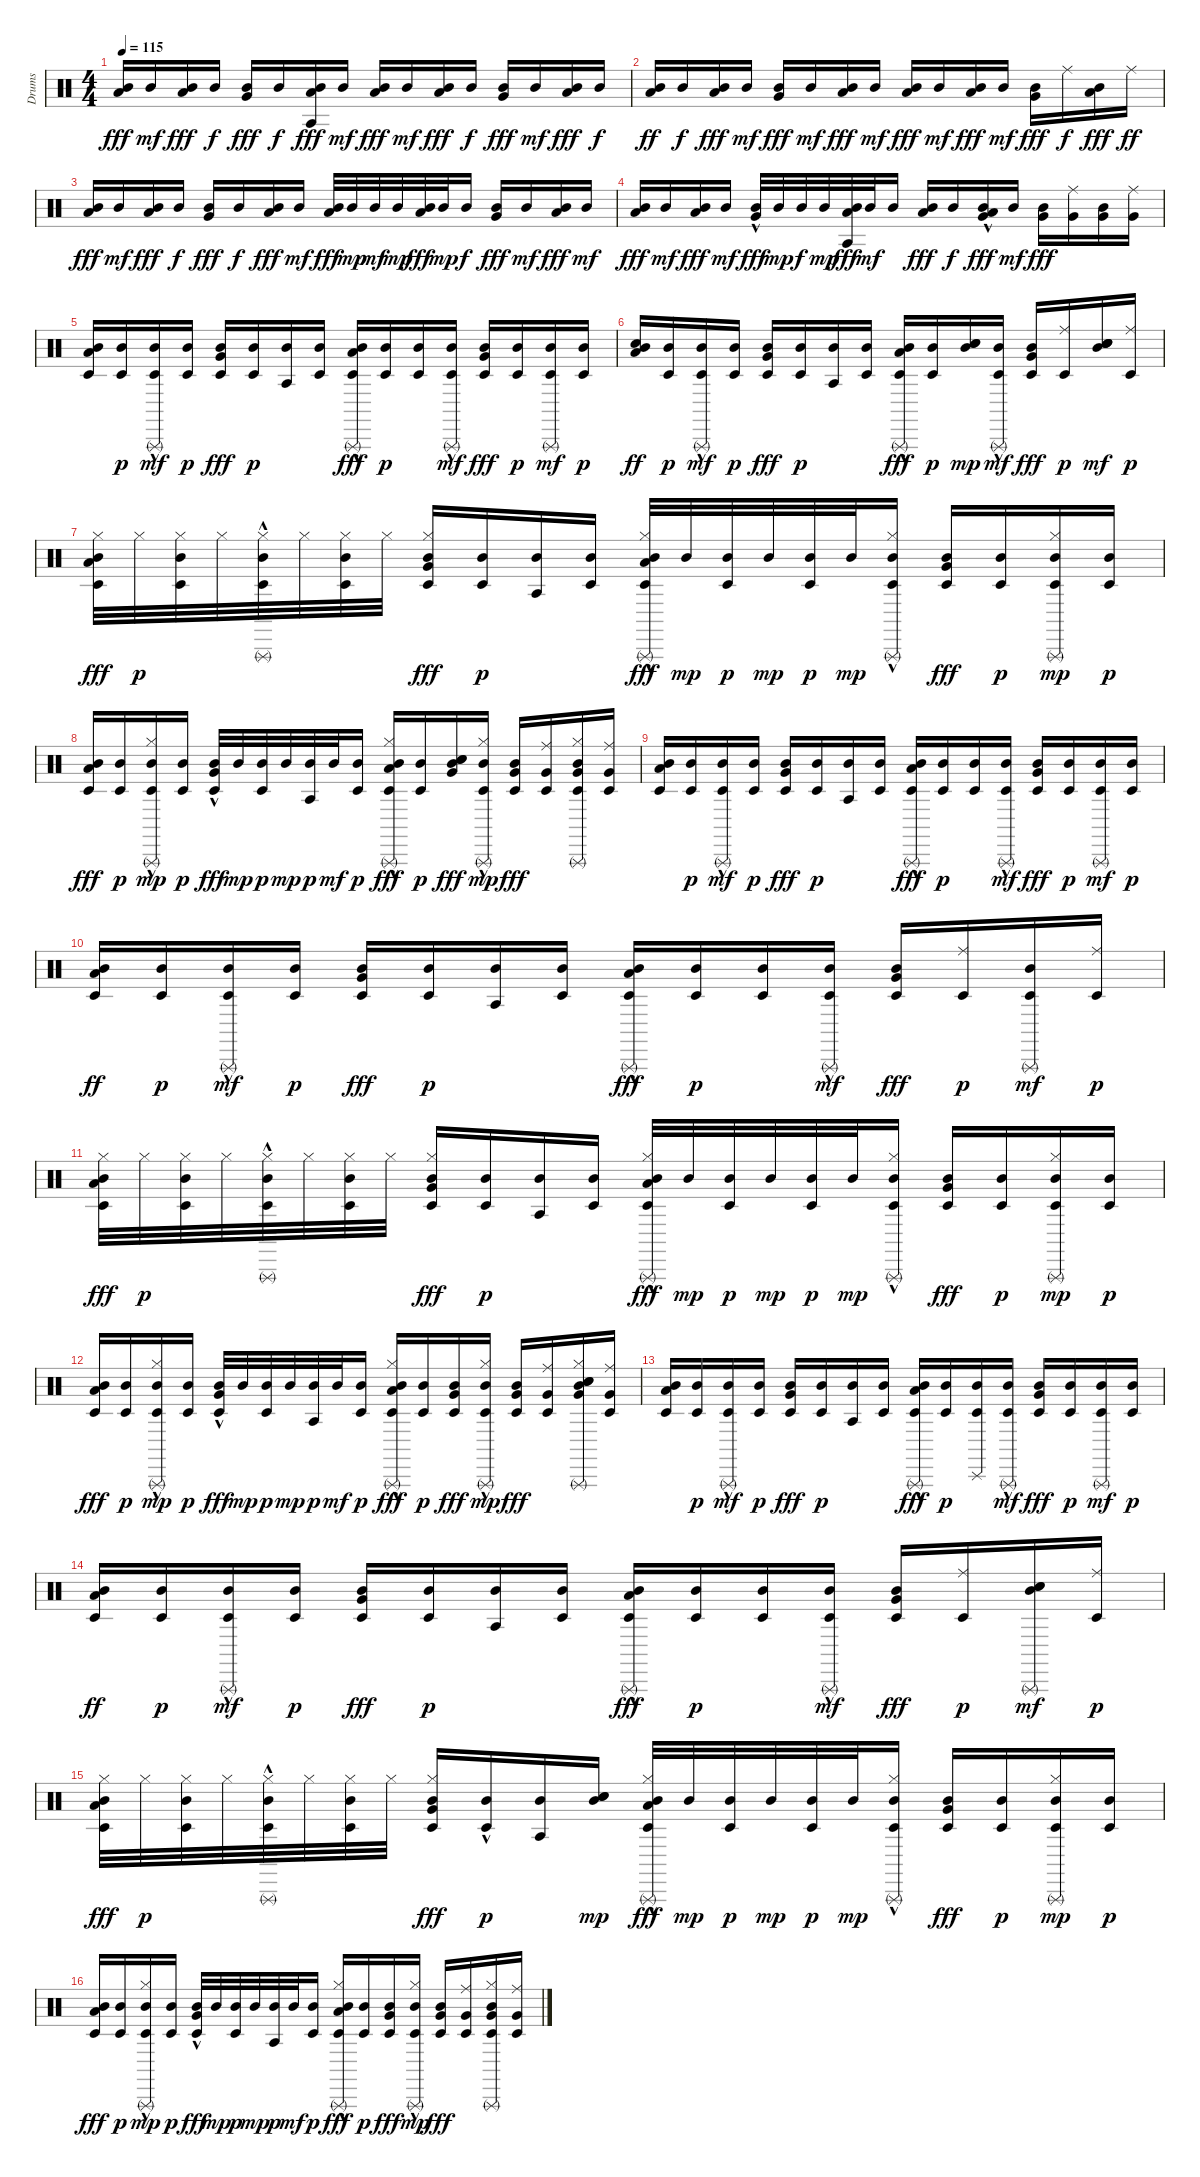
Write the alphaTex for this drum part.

\track ("Drums" "Drums") {instrument percussion}
\staff {score}
\articulation defaults
\ts (4 4)
\tempo 115
\clef neutral
\ks c
("Mid Tom (hit)" "Low Floor Tom (hit)").16{dy fff} "Mid Tom (hit)".16{dy mf} ("Mid Tom (hit)" "Low Floor Tom (hit)").16{dy fff} "Mid Tom (hit)".16{dy f} ("Mid Tom (hit)" "Very Low Tom (hit)").16{dy fff} "Mid Tom (hit)".16{dy f} ("Mid Tom (hit)" "Agogo tow (hit)" "Low Floor Tom (hit)").16{dy fff} "Mid Tom (hit)".16{dy mf} ("Mid Tom (hit)" "Low Floor Tom (hit)").16{dy fff} "Mid Tom (hit)".16{dy mf} ("Mid Tom (hit)" "Low Floor Tom (hit)").16{dy fff} "Mid Tom (hit)".16{dy f} ("Mid Tom (hit)" "Very Low Tom (hit)").16{dy fff} "Mid Tom (hit)".16{dy mf} ("Mid Tom (hit)" "Low Floor Tom (hit)").16{dy fff} "Mid Tom (hit)".16{dy f} |
("Mid Tom (hit)" "Low Floor Tom (hit)").16{dy ff} "Mid Tom (hit)".16{dy f} ("Mid Tom (hit)" "Low Floor Tom (hit)").16{dy fff} "Mid Tom (hit)".16{dy mf} ("Mid Tom (hit)" "Very Low Tom (hit)").16{dy fff} "Mid Tom (hit)".16{dy mf} ("Mid Tom (hit)" "Low Floor Tom (hit)").16{dy fff} "Mid Tom (hit)".16{dy mf} ("Mid Tom (hit)" "Low Floor Tom (hit)").16{dy fff} "Mid Tom (hit)".16{dy mf} ("Mid Tom (hit)" "Low Floor Tom (hit)").16{dy fff} "Mid Tom (hit)".16{dy mf} ("Mid Tom (hit)" "Very Low Tom (hit)").16{dy fff} "Ride (middle)".16{dy f} ("Mid Tom (hit)" "Low Floor Tom (hit)").16{dy fff} "Ride (middle)".16{dy ff} |
("Mid Tom (hit)" "Low Floor Tom (hit)").16{dy fff} "Mid Tom (hit)".16{dy mf} ("Mid Tom (hit)" "Low Floor Tom (hit)").16{dy fff} "Mid Tom (hit)".16{dy f} ("Mid Tom (hit)" "Very Low Tom (hit)").16{dy fff} "Mid Tom (hit)".16{dy f} ("Mid Tom (hit)" "Low Floor Tom (hit)").16{dy fff} "Mid Tom (hit)".16{dy mf} ("Mid Tom (hit)" "Low Floor Tom (hit)").32{dy fff} "Mid Tom (hit)".32{dy mp} "Mid Tom (hit)".32{dy mf} "Mid Tom (hit)".32{dy mp} ("Mid Tom (hit)" "Low Floor Tom (hit)").32{dy fff} "Mid Tom (hit)".32{dy mp} "Mid Tom (hit)".16{dy f} ("Mid Tom (hit)" "Very Low Tom (hit)").16{dy fff} "Mid Tom (hit)".16{dy mf} ("Mid Tom (hit)" "Low Floor Tom (hit)").16{dy fff} "Mid Tom (hit)".16{dy mf} |
("Mid Tom (hit)" "Low Floor Tom (hit)").16{dy fff} "Mid Tom (hit)".16{dy mf} ("Mid Tom (hit)" "Low Floor Tom (hit)").16{dy fff} "Mid Tom (hit)".16{dy mf} ("Mid Tom (hit)" "Very Low Tom (hit)"{hac}).32{dy fff} "Mid Tom (hit)".32{dy mp} "Mid Tom (hit)".32{dy f} "Mid Tom (hit)".32{dy mp} ("Mid Tom (hit)" "Agogo tow (hit)" "Low Floor Tom (hit)").32{dy fff} "Mid Tom (hit)".32{dy mf} "Mid Tom (hit)".16 ("Mid Tom (hit)" "Low Floor Tom (hit)").16{dy fff} "Mid Tom (hit)".16{dy f} ("Mid Tom (hit)" "Very Low Tom (hit)" "Low Floor Tom (hit)"{hac}).16{dy fff} "Mid Tom (hit)".16{dy mf} ("Mid Tom (hit)" "Very Low Tom (hit)").16{dy fff} ("Ride (middle)" "Very Low Tom (hit)").16 ("Mid Tom (hit)" "Very Low Tom (hit)").16 ("Ride (middle)" "Very Low Tom (hit)").16 |
("Mid Tom (hit)" "Timbale low (hit)" "Low Floor Tom (hit)").16 ("Mid Tom (hit)" "Timbale low (hit)").16{dy p} ("Mid Tom (hit)" "Timbale low (hit)" "Triangle (rnute)"{hac}).16{dy mf} ("Mid Tom (hit)" "Timbale low (hit)").16{dy p} ("Mid Tom (hit)" "Timbale low (hit)" "Very Low Tom (hit)").16{dy fff} ("Mid Tom (hit)" "Timbale low (hit)").16{dy p} ("Mid Tom (hit)" "Agogo tow (hit)").16 ("Mid Tom (hit)" "Timbale low (hit)").16 ("Mid Tom (hit)" "Timbale low (hit)" "Triangle (rnute)"{hac} "Low Floor Tom (hit)").16{dy fff} ("Mid Tom (hit)" "Timbale low (hit)").16{dy p} ("Mid Tom (hit)" "Timbale low (hit)").16 ("Mid Tom (hit)" "Timbale low (hit)" "Triangle (rnute)"{hac}).16{dy mf} ("Mid Tom (hit)" "Timbale low (hit)" "Very Low Tom (hit)").16{dy fff} ("Mid Tom (hit)" "Timbale low (hit)").16{dy p} ("Mid Tom (hit)" "Timbale low (hit)" "Triangle (rnute)").16{dy mf} ("Mid Tom (hit)" "Timbale low (hit)").16{dy p} |
("Mid Tom (hit)" "Snare (hit)" "Low Floor Tom (hit)").16{dy ff} ("Mid Tom (hit)" "Timbale low (hit)").16{dy p} ("Mid Tom (hit)" "Timbale low (hit)" "Triangle (rnute)"{hac}).16{dy mf} ("Mid Tom (hit)" "Timbale low (hit)").16{dy p} ("Mid Tom (hit)" "Timbale low (hit)" "Very Low Tom (hit)").16{dy fff} ("Mid Tom (hit)" "Timbale low (hit)").16{dy p} ("Mid Tom (hit)" "Agogo tow (hit)").16 ("Mid Tom (hit)" "Timbale low (hit)").16 ("Mid Tom (hit)" "Timbale low (hit)" "Triangle (rnute)"{hac} "Low Floor Tom (hit)").16{dy fff} ("Mid Tom (hit)" "Timbale low (hit)").16{dy p} ("Mid Tom (hit)" "Snare (hit)" "Snare (hit)").16{dy mp} ("Mid Tom (hit)" "Timbale low (hit)" "Triangle (rnute)"{hac}).16{dy mf} ("Mid Tom (hit)" "Timbale low (hit)" "Very Low Tom (hit)").16{dy fff} ("Ride (middle)" "Timbale low (hit)").16{dy p} ("Mid Tom (hit)" "Snare (hit)" "Snare (hit)" "Snare (hit)").16{dy mf} ("Ride (middle)" "Timbale low (hit)").16{dy p} |
("Mid Tom (hit)" "Timbale low (hit)" "Hi-Hat (closed)" "Low Floor Tom (hit)").32{dy fff} "Hi-Hat (closed)".32{dy p} ("Mid Tom (hit)" "Timbale low (hit)" "Hi-Hat (closed)").32 "Hi-Hat (closed)".32 ("Mid Tom (hit)" "Timbale low (hit)" "Triangle (rnute)"{hac} "Hi-Hat (closed)").32 "Hi-Hat (closed)".32 ("Mid Tom (hit)" "Timbale low (hit)" "Hi-Hat (closed)").32 "Hi-Hat (closed)".32 ("Mid Tom (hit)" "Timbale low (hit)" "Hi-Hat (closed)" "Very Low Tom (hit)").16{dy fff} ("Mid Tom (hit)" "Timbale low (hit)").16{dy p} ("Mid Tom (hit)" "Agogo tow (hit)").16 ("Mid Tom (hit)" "Timbale low (hit)").16 ("Mid Tom (hit)" "Timbale low (hit)" "Triangle (rnute)"{hac} "Hi-Hat (closed)"{hac} "Low Floor Tom (hit)").32{dy fff} "Mid Tom (hit)".32{dy mp} ("Mid Tom (hit)" "Timbale low (hit)").32{dy p} "Mid Tom (hit)".32{dy mp} ("Mid Tom (hit)" "Timbale low (hit)").32{dy p} "Mid Tom (hit)".32{dy mp} ("Mid Tom (hit)" "Timbale low (hit)" "Triangle (rnute)"{hac} "Hi-Hat (closed)"{hac}).16 ("Mid Tom (hit)" "Timbale low (hit)" "Very Low Tom (hit)").16{dy fff} ("Mid Tom (hit)" "Timbale low (hit)").16{dy p} ("Mid Tom (hit)" "Timbale low (hit)" "Triangle (rnute)" "Hi-Hat (closed)").16{dy mp} ("Mid Tom (hit)" "Timbale low (hit)").16{dy p} |
("Mid Tom (hit)" "Timbale low (hit)" "Low Floor Tom (hit)").16{dy fff} ("Mid Tom (hit)" "Timbale low (hit)").16{dy p} ("Mid Tom (hit)" "Timbale low (hit)" "Triangle (rnute)"{hac} "Hi-Hat (closed)"{hac}).16{dy mp} ("Mid Tom (hit)" "Timbale low (hit)").16{dy p} ("Mid Tom (hit)" "Timbale low (hit)" "Very Low Tom (hit)"{hac}).32{dy fff} "Mid Tom (hit)".32{dy mp} ("Mid Tom (hit)" "Timbale low (hit)").32{dy p} "Mid Tom (hit)".32{dy mp} ("Mid Tom (hit)" "Agogo tow (hit)").32{dy p} "Mid Tom (hit)".32{dy mf} ("Mid Tom (hit)" "Timbale low (hit)").16{dy p} ("Mid Tom (hit)" "Timbale low (hit)" "Triangle (rnute)"{hac} "Hi-Hat (closed)"{hac} "Low Floor Tom (hit)").16{dy fff} ("Mid Tom (hit)" "Timbale low (hit)").16{dy p} ("Mid Tom (hit)" "Snare (hit)" "Snare (hit)" "Very Low Tom (hit)").16{dy fff} ("Mid Tom (hit)" "Timbale low (hit)" "Triangle (rnute)"{hac} "Hi-Hat (closed)"{hac}).16{dy mp} ("Mid Tom (hit)" "Timbale low (hit)" "Very Low Tom (hit)").16{dy fff} ("Ride (middle)" "Timbale low (hit)" "Very Low Tom (hit)").16 ("Mid Tom (hit)" "Timbale low (hit)" "Triangle (rnute)" "Hi-Hat (closed)" "Very Low Tom (hit)").16 ("Ride (middle)" "Timbale low (hit)" "Very Low Tom (hit)").16 |
("Mid Tom (hit)" "Timbale low (hit)" "Low Floor Tom (hit)").16 ("Mid Tom (hit)" "Timbale low (hit)").16{dy p} ("Mid Tom (hit)" "Timbale low (hit)" "Triangle (rnute)"{hac}).16{dy mf} ("Mid Tom (hit)" "Timbale low (hit)").16{dy p} ("Mid Tom (hit)" "Timbale low (hit)" "Very Low Tom (hit)").16{dy fff} ("Mid Tom (hit)" "Timbale low (hit)").16{dy p} ("Mid Tom (hit)" "Agogo tow (hit)").16 ("Mid Tom (hit)" "Timbale low (hit)").16 ("Mid Tom (hit)" "Timbale low (hit)" "Triangle (rnute)"{hac} "Low Floor Tom (hit)").16{dy fff} ("Mid Tom (hit)" "Timbale low (hit)").16{dy p} ("Mid Tom (hit)" "Timbale low (hit)").16 ("Mid Tom (hit)" "Timbale low (hit)" "Triangle (rnute)"{hac}).16{dy mf} ("Mid Tom (hit)" "Timbale low (hit)" "Very Low Tom (hit)").16{dy fff} ("Mid Tom (hit)" "Timbale low (hit)").16{dy p} ("Mid Tom (hit)" "Timbale low (hit)" "Triangle (rnute)").16{dy mf} ("Mid Tom (hit)" "Timbale low (hit)").16{dy p} |
("Mid Tom (hit)" "Timbale low (hit)" "Low Floor Tom (hit)").16{dy ff} ("Mid Tom (hit)" "Timbale low (hit)").16{dy p} ("Mid Tom (hit)" "Timbale low (hit)" "Triangle (rnute)"{hac}).16{dy mf} ("Mid Tom (hit)" "Timbale low (hit)").16{dy p} ("Mid Tom (hit)" "Timbale low (hit)" "Very Low Tom (hit)").16{dy fff} ("Mid Tom (hit)" "Timbale low (hit)").16{dy p} ("Mid Tom (hit)" "Agogo tow (hit)").16 ("Mid Tom (hit)" "Timbale low (hit)").16 ("Mid Tom (hit)" "Timbale low (hit)" "Triangle (rnute)"{hac} "Low Floor Tom (hit)").16{dy fff} ("Mid Tom (hit)" "Timbale low (hit)").16{dy p} ("Mid Tom (hit)" "Timbale low (hit)").16 ("Mid Tom (hit)" "Timbale low (hit)" "Triangle (rnute)"{hac}).16{dy mf} ("Mid Tom (hit)" "Timbale low (hit)" "Very Low Tom (hit)").16{dy fff} ("Ride (middle)" "Timbale low (hit)").16{dy p} ("Mid Tom (hit)" "Timbale low (hit)" "Triangle (rnute)").16{dy mf} ("Ride (middle)" "Timbale low (hit)").16{dy p} |
("Mid Tom (hit)" "Timbale low (hit)" "Hi-Hat (closed)" "Low Floor Tom (hit)").32{dy fff} "Hi-Hat (closed)".32{dy p} ("Mid Tom (hit)" "Timbale low (hit)" "Hi-Hat (closed)").32 "Hi-Hat (closed)".32 ("Mid Tom (hit)" "Timbale low (hit)" "Triangle (rnute)"{hac} "Hi-Hat (closed)").32 "Hi-Hat (closed)".32 ("Mid Tom (hit)" "Timbale low (hit)" "Hi-Hat (closed)").32 "Hi-Hat (closed)".32 ("Mid Tom (hit)" "Timbale low (hit)" "Hi-Hat (closed)" "Very Low Tom (hit)").16{dy fff} ("Mid Tom (hit)" "Timbale low (hit)").16{dy p} ("Mid Tom (hit)" "Agogo tow (hit)").16 ("Mid Tom (hit)" "Timbale low (hit)").16 ("Mid Tom (hit)" "Timbale low (hit)" "Triangle (rnute)"{hac} "Hi-Hat (closed)"{hac} "Low Floor Tom (hit)").32{dy fff} "Mid Tom (hit)".32{dy mp} ("Mid Tom (hit)" "Timbale low (hit)").32{dy p} "Mid Tom (hit)".32{dy mp} ("Mid Tom (hit)" "Timbale low (hit)").32{dy p} "Mid Tom (hit)".32{dy mp} ("Mid Tom (hit)" "Timbale low (hit)" "Triangle (rnute)"{hac} "Hi-Hat (closed)"{hac}).16 ("Mid Tom (hit)" "Timbale low (hit)" "Very Low Tom (hit)").16{dy fff} ("Mid Tom (hit)" "Timbale low (hit)").16{dy p} ("Mid Tom (hit)" "Timbale low (hit)" "Triangle (rnute)" "Hi-Hat (closed)").16{dy mp} ("Mid Tom (hit)" "Timbale low (hit)").16{dy p} |
("Mid Tom (hit)" "Timbale low (hit)" "Low Floor Tom (hit)").16{dy fff} ("Mid Tom (hit)" "Timbale low (hit)").16{dy p} ("Mid Tom (hit)" "Timbale low (hit)" "Triangle (rnute)"{hac} "Hi-Hat (closed)"{hac}).16{dy mp} ("Mid Tom (hit)" "Timbale low (hit)").16{dy p} ("Mid Tom (hit)" "Timbale low (hit)" "Very Low Tom (hit)"{hac}).32{dy fff} "Mid Tom (hit)".32{dy mp} ("Mid Tom (hit)" "Timbale low (hit)").32{dy p} "Mid Tom (hit)".32{dy mp} ("Mid Tom (hit)" "Agogo tow (hit)").32{dy p} "Mid Tom (hit)".32{dy mf} ("Mid Tom (hit)" "Timbale low (hit)").16{dy p} ("Mid Tom (hit)" "Timbale low (hit)" "Triangle (rnute)"{hac} "Hi-Hat (closed)"{hac} "Low Floor Tom (hit)").16{dy fff} ("Mid Tom (hit)" "Timbale low (hit)").16{dy p} ("Mid Tom (hit)" "Timbale low (hit)" "Very Low Tom (hit)").16{dy fff} ("Mid Tom (hit)" "Timbale low (hit)" "Triangle (rnute)"{hac} "Hi-Hat (closed)"{hac}).16{dy mp} ("Mid Tom (hit)" "Timbale low (hit)" "Very Low Tom (hit)").16{dy fff} ("Ride (middle)" "Timbale low (hit)" "Very Low Tom (hit)").16 ("Mid Tom (hit)" "Snare (hit)" "Snare (hit)" "Triangle (rnute)" "Hi-Hat (closed)" "Very Low Tom (hit)").16 ("Ride (middle)" "Timbale low (hit)" "Very Low Tom (hit)").16 |
("Mid Tom (hit)" "Timbale low (hit)" "Low Floor Tom (hit)").16 ("Mid Tom (hit)" "Timbale low (hit)").16{dy p} ("Mid Tom (hit)" "Timbale low (hit)" "Triangle (rnute)"{hac}).16{dy mf} ("Mid Tom (hit)" "Timbale low (hit)").16{dy p} ("Mid Tom (hit)" "Timbale low (hit)" "Very Low Tom (hit)").16{dy fff} ("Mid Tom (hit)" "Timbale low (hit)").16{dy p} ("Mid Tom (hit)" "Agogo tow (hit)").16 ("Mid Tom (hit)" "Timbale low (hit)").16 ("Mid Tom (hit)" "Timbale low (hit)" "Triangle (rnute)"{hac} "Low Floor Tom (hit)").16{dy fff} ("Mid Tom (hit)" "Timbale low (hit)").16{dy p} ("Mid Tom (hit)" "Piatti (hand)" "Timbale low (hit)").16 ("Mid Tom (hit)" "Timbale low (hit)" "Triangle (rnute)"{hac}).16{dy mf} ("Mid Tom (hit)" "Timbale low (hit)" "Very Low Tom (hit)").16{dy fff} ("Mid Tom (hit)" "Timbale low (hit)").16{dy p} ("Mid Tom (hit)" "Timbale low (hit)" "Triangle (rnute)").16{dy mf} ("Mid Tom (hit)" "Timbale low (hit)").16{dy p} |
("Mid Tom (hit)" "Timbale low (hit)" "Low Floor Tom (hit)").16{dy ff} ("Mid Tom (hit)" "Timbale low (hit)").16{dy p} ("Mid Tom (hit)" "Timbale low (hit)" "Triangle (rnute)"{hac}).16{dy mf} ("Mid Tom (hit)" "Timbale low (hit)").16{dy p} ("Mid Tom (hit)" "Timbale low (hit)" "Very Low Tom (hit)").16{dy fff} ("Mid Tom (hit)" "Timbale low (hit)").16{dy p} ("Mid Tom (hit)" "Agogo tow (hit)").16 ("Mid Tom (hit)" "Timbale low (hit)").16 ("Mid Tom (hit)" "Timbale low (hit)" "Triangle (rnute)"{hac} "Low Floor Tom (hit)").16{dy fff} ("Mid Tom (hit)" "Timbale low (hit)").16{dy p} ("Mid Tom (hit)" "Timbale low (hit)").16 ("Mid Tom (hit)" "Timbale low (hit)" "Triangle (rnute)"{hac}).16{dy mf} ("Mid Tom (hit)" "Timbale low (hit)" "Very Low Tom (hit)").16{dy fff} ("Ride (middle)" "Timbale low (hit)").16{dy p} ("Mid Tom (hit)" "Snare (hit)" "Snare (hit)" "Triangle (rnute)").16{dy mf} ("Ride (middle)" "Timbale low (hit)").16{dy p} |
("Mid Tom (hit)" "Timbale low (hit)" "Hi-Hat (closed)" "Low Floor Tom (hit)").32{dy fff} "Hi-Hat (closed)".32{dy p} ("Mid Tom (hit)" "Timbale low (hit)" "Hi-Hat (closed)").32 "Hi-Hat (closed)".32 ("Mid Tom (hit)" "Timbale low (hit)" "Triangle (rnute)"{hac} "Hi-Hat (closed)").32 "Hi-Hat (closed)".32 ("Mid Tom (hit)" "Timbale low (hit)" "Hi-Hat (closed)").32 "Hi-Hat (closed)".32 ("Mid Tom (hit)" "Timbale low (hit)" "Hi-Hat (closed)" "Very Low Tom (hit)").16{dy fff} ("Mid Tom (hit)" "Timbale low (hit)"{hac}).16{dy p} ("Mid Tom (hit)" "Agogo tow (hit)").16 ("Mid Tom (hit)" "Snare (hit)" "Snare (hit)").16{dy mp} ("Mid Tom (hit)" "Timbale low (hit)" "Triangle (rnute)"{hac} "Hi-Hat (closed)"{hac} "Low Floor Tom (hit)").32{dy fff} "Mid Tom (hit)".32{dy mp} ("Mid Tom (hit)" "Timbale low (hit)").32{dy p} "Mid Tom (hit)".32{dy mp} ("Mid Tom (hit)" "Timbale low (hit)").32{dy p} "Mid Tom (hit)".32{dy mp} ("Mid Tom (hit)" "Timbale low (hit)" "Triangle (rnute)"{hac} "Hi-Hat (closed)"{hac}).16 ("Mid Tom (hit)" "Timbale low (hit)" "Very Low Tom (hit)").16{dy fff} ("Mid Tom (hit)" "Timbale low (hit)").16{dy p} ("Mid Tom (hit)" "Timbale low (hit)" "Triangle (rnute)" "Hi-Hat (closed)").16{dy mp} ("Mid Tom (hit)" "Timbale low (hit)").16{dy p} |
("Mid Tom (hit)" "Timbale low (hit)" "Low Floor Tom (hit)").16{dy fff} ("Mid Tom (hit)" "Timbale low (hit)").16{dy p} ("Mid Tom (hit)" "Timbale low (hit)" "Triangle (rnute)"{hac} "Hi-Hat (closed)"{hac}).16{dy mp} ("Mid Tom (hit)" "Timbale low (hit)").16{dy p} ("Mid Tom (hit)" "Timbale low (hit)" "Very Low Tom (hit)"{hac}).32{dy fff} "Mid Tom (hit)".32{dy mp} ("Mid Tom (hit)" "Timbale low (hit)").32{dy p} "Mid Tom (hit)".32{dy mp} ("Mid Tom (hit)" "Agogo tow (hit)").32{dy p} "Mid Tom (hit)".32{dy mf} ("Mid Tom (hit)" "Timbale low (hit)").16{dy p} ("Mid Tom (hit)" "Timbale low (hit)" "Triangle (rnute)"{hac} "Hi-Hat (closed)"{hac} "Low Floor Tom (hit)").16{dy fff} ("Mid Tom (hit)" "Timbale low (hit)").16{dy p} ("Mid Tom (hit)" "Timbale low (hit)" "Very Low Tom (hit)").16{dy fff} ("Mid Tom (hit)" "Timbale low (hit)" "Triangle (rnute)"{hac} "Hi-Hat (closed)"{hac}).16{dy mp} ("Mid Tom (hit)" "Timbale low (hit)" "Very Low Tom (hit)").16{dy fff} ("Ride (middle)" "Timbale low (hit)" "Very Low Tom (hit)").16 ("Mid Tom (hit)" "Timbale low (hit)" "Triangle (rnute)" "Hi-Hat (closed)" "Very Low Tom (hit)").16 ("Ride (middle)" "Timbale low (hit)" "Very Low Tom (hit)").16
